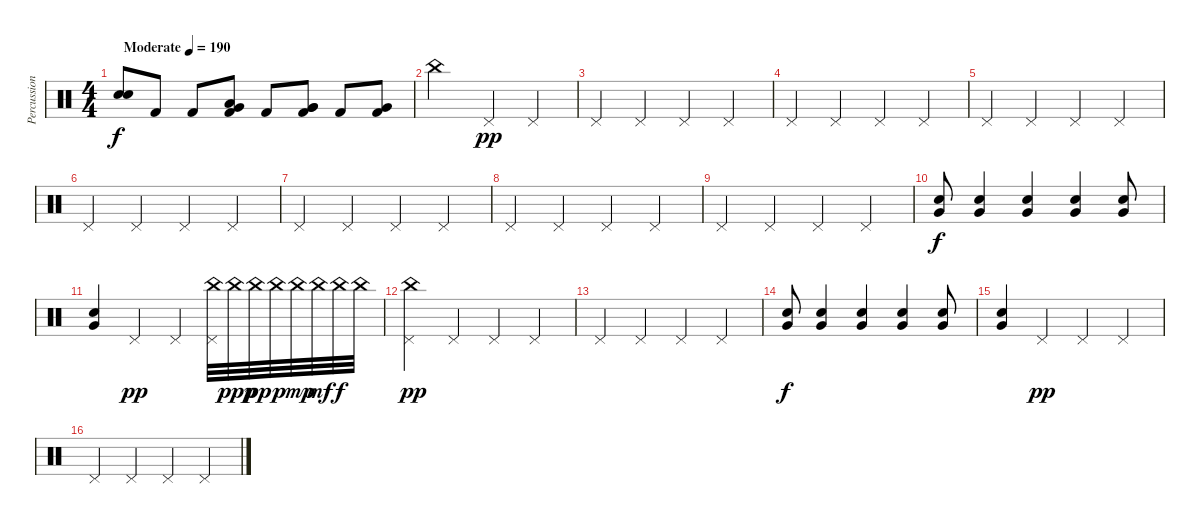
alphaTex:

\track ("Percussions" "Percussion") {instrument percussion}
\staff {score}
\articulation defaults
\ts (4 4)
\tempo (190 "Moderate")
\clef neutral
\ks c
("Electric Snare (hit)" "Electric Snare (hit)").8{dy f} "Kick (hit) 2".8 "Kick (hit) 2".8 ("Low Tom (hit)" "Very Low Tom (hit)" "Kick (hit) 2").8 "Kick (hit) 2".8 ("Very Low Tom (hit)" "Very Low Tom (hit)" "Kick (hit) 2").8 "Kick (hit) 2".8 ("Very Low Tom (hit)" "Kick (hit) 2").8 |
"China (hit)".2 "Pedal Hi-Hat (hit)".4{dy pp} "Pedal Hi-Hat (hit)".4 |
"Pedal Hi-Hat (hit)".4 "Pedal Hi-Hat (hit)".4 "Pedal Hi-Hat (hit)".4 "Pedal Hi-Hat (hit)".4 |
"Pedal Hi-Hat (hit)".4 "Pedal Hi-Hat (hit)".4 "Pedal Hi-Hat (hit)".4 "Pedal Hi-Hat (hit)".4 |
"Pedal Hi-Hat (hit)".4 "Pedal Hi-Hat (hit)".4 "Pedal Hi-Hat (hit)".4 "Pedal Hi-Hat (hit)".4 |
"Pedal Hi-Hat (hit)".4 "Pedal Hi-Hat (hit)".4 "Pedal Hi-Hat (hit)".4 "Pedal Hi-Hat (hit)".4 |
"Pedal Hi-Hat (hit)".4 "Pedal Hi-Hat (hit)".4 "Pedal Hi-Hat (hit)".4 "Pedal Hi-Hat (hit)".4 |
"Pedal Hi-Hat (hit)".4 "Pedal Hi-Hat (hit)".4 "Pedal Hi-Hat (hit)".4 "Pedal Hi-Hat (hit)".4 |
"Pedal Hi-Hat (hit)".4 "Pedal Hi-Hat (hit)".4 "Pedal Hi-Hat (hit)".4 "Pedal Hi-Hat (hit)".4 |
("Electric Snare (hit)" "Very Low Tom (hit)").8{dy f} ("Electric Snare (hit)" "Very Low Tom (hit)").4 ("Electric Snare (hit)" "Very Low Tom (hit)").4 ("Electric Snare (hit)" "Very Low Tom (hit)").4 ("Electric Snare (hit)" "Very Low Tom (hit)").8 |
("Electric Snare (hit)" "Very Low Tom (hit)").4 "Pedal Hi-Hat (hit)".4{dy pp} "Pedal Hi-Hat (hit)".4 ("China (hit)" "Pedal Hi-Hat (hit)").32 "China (hit)".32{dy ppp} "China (hit)".32{dy pp} "China (hit)".32{dy p} "China (hit)".32{dy mp} "China (hit)".32{dy mf} "China (hit)".32{dy f} "China (hit)".32 |
("China (hit)" "Pedal Hi-Hat (hit)").4{dy pp} "Pedal Hi-Hat (hit)".4 "Pedal Hi-Hat (hit)".4 "Pedal Hi-Hat (hit)".4 |
"Pedal Hi-Hat (hit)".4 "Pedal Hi-Hat (hit)".4 "Pedal Hi-Hat (hit)".4 "Pedal Hi-Hat (hit)".4 |
("Electric Snare (hit)" "Very Low Tom (hit)").8{dy f} ("Electric Snare (hit)" "Very Low Tom (hit)").4 ("Electric Snare (hit)" "Very Low Tom (hit)").4 ("Electric Snare (hit)" "Very Low Tom (hit)").4 ("Electric Snare (hit)" "Very Low Tom (hit)").8 |
("Electric Snare (hit)" "Very Low Tom (hit)").4 "Pedal Hi-Hat (hit)".4{dy pp} "Pedal Hi-Hat (hit)".4 "Pedal Hi-Hat (hit)".4 |
"Pedal Hi-Hat (hit)".4 "Pedal Hi-Hat (hit)".4 "Pedal Hi-Hat (hit)".4 "Pedal Hi-Hat (hit)".4
